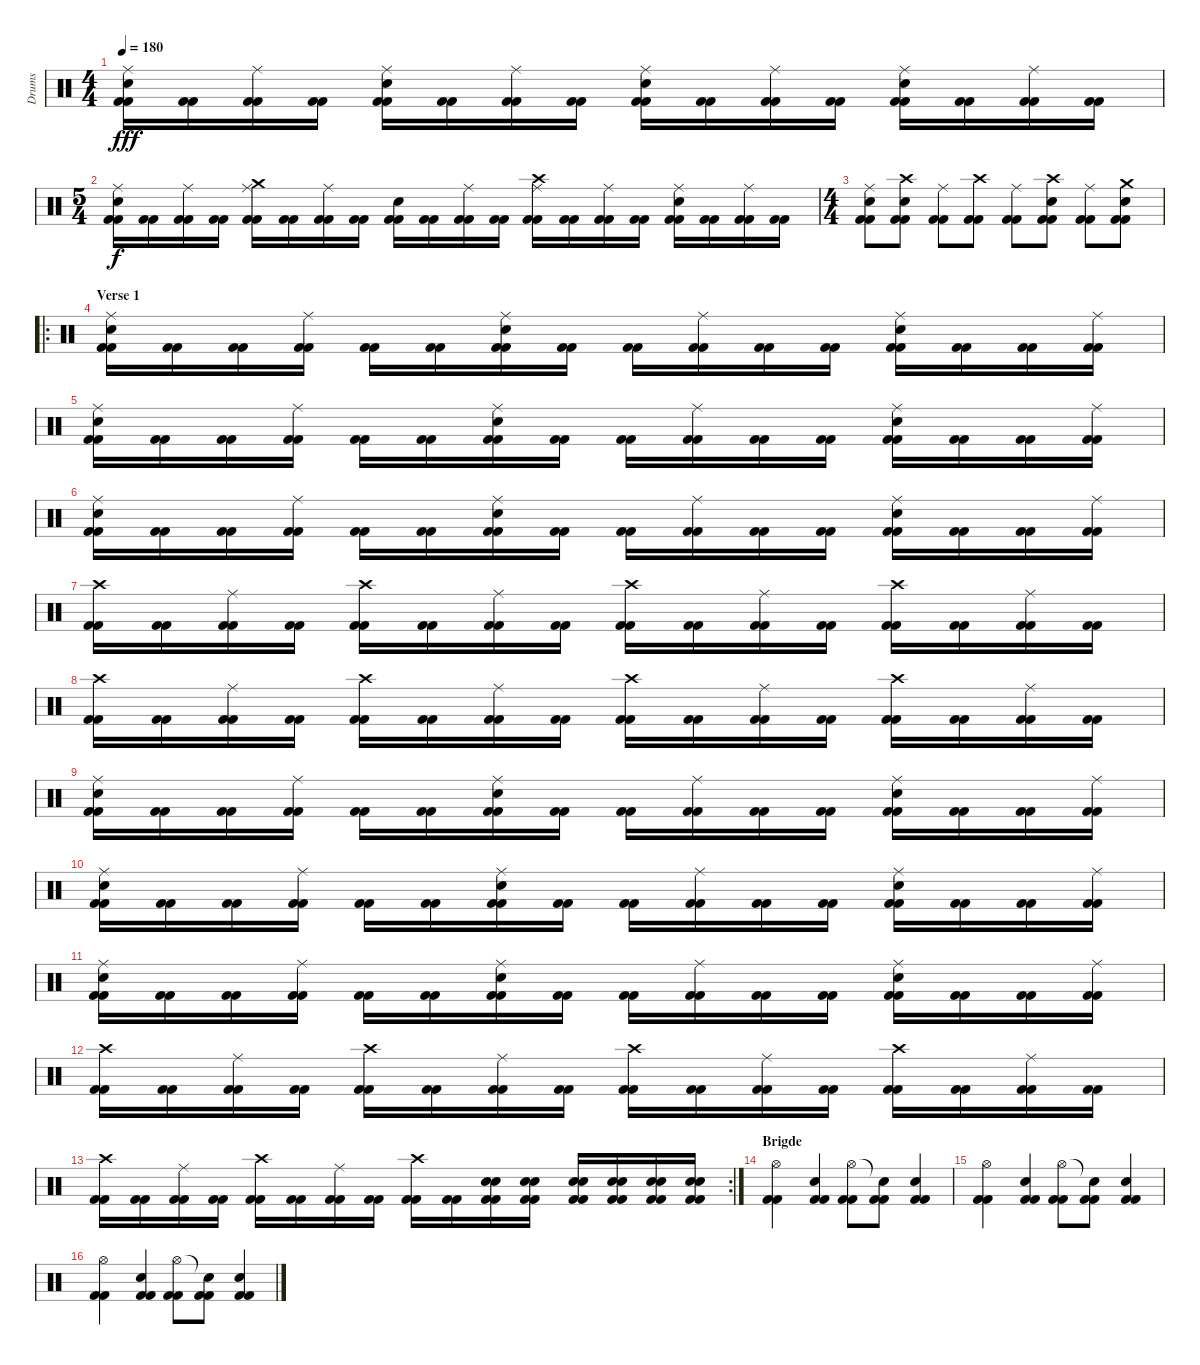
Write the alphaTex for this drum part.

\track ("Drums" "Drums") {instrument percussion}
\staff {score}
\articulation defaults
\ts (4 4)
\tempo 180
\clef neutral
\ks c
("Kick (hit) 2" "Kick (hit) 2" "Electric Snare (hit)" "Ride (middle)").16{dy fff} ("Kick (hit) 2" "Kick (hit) 2").16 ("Kick (hit) 2" "Kick (hit) 2" "Ride (middle)").16 ("Kick (hit) 2" "Kick (hit) 2").16 ("Kick (hit) 2" "Kick (hit) 2" "Electric Snare (hit)" "Ride (middle)").16 ("Kick (hit) 2" "Kick (hit) 2").16 ("Kick (hit) 2" "Kick (hit) 2" "Ride (middle)").16 ("Kick (hit) 2" "Kick (hit) 2").16 ("Kick (hit) 2" "Kick (hit) 2" "Electric Snare (hit)" "Ride (middle)").16 ("Kick (hit) 2" "Kick (hit) 2").16 ("Kick (hit) 2" "Kick (hit) 2" "Ride (middle)").16 ("Kick (hit) 2" "Kick (hit) 2").16 ("Kick (hit) 2" "Kick (hit) 2" "Electric Snare (hit)" "Ride (middle)").16 ("Kick (hit) 2" "Kick (hit) 2").16 ("Kick (hit) 2" "Kick (hit) 2" "Ride (middle)").16 ("Kick (hit) 2" "Kick (hit) 2").16 |
\ts (5 4)
("Kick (hit) 2" "Kick (hit) 2" "Electric Snare (hit)" "Ride (middle)").16{dy f} ("Kick (hit) 2" "Kick (hit) 2").16 ("Kick (hit) 2" "Kick (hit) 2" "Ride (middle)").16 ("Kick (hit) 2" "Kick (hit) 2").16 ("Kick (hit) 2" "Kick (hit) 2" "Crash medium (hit)" "Ride (middle)").16 ("Kick (hit) 2" "Kick (hit) 2").16 ("Kick (hit) 2" "Kick (hit) 2" "Ride (middle)").16 ("Kick (hit) 2" "Kick (hit) 2").16 ("Kick (hit) 2" "Kick (hit) 2" "Snare (hit) 2").16 ("Kick (hit) 2" "Kick (hit) 2").16 ("Kick (hit) 2" "Kick (hit) 2" "Ride (middle)").16 ("Kick (hit) 2" "Kick (hit) 2").16 ("Kick (hit) 2" "Kick (hit) 2" "Crash high (hit)" "Ride (middle)").16 ("Kick (hit) 2" "Kick (hit) 2").16 ("Kick (hit) 2" "Kick (hit) 2" "Ride (middle)").16 ("Kick (hit) 2" "Kick (hit) 2").16 ("Kick (hit) 2" "Kick (hit) 2" "Snare (hit) 2" "Ride (middle)").16 ("Kick (hit) 2" "Kick (hit) 2").16 ("Kick (hit) 2" "Kick (hit) 2" "Ride (middle)").16 ("Kick (hit) 2" "Kick (hit) 2").16 |
\ts (4 4)
("Kick (hit) 2" "Kick (hit) 2" "Electric Snare (hit)" "Ride (middle)").8 ("Kick (hit) 2" "Kick (hit) 2" "Snare (hit) 2" "Crash high (hit)").8 ("Kick (hit) 2" "Kick (hit) 2" "Ride (middle)").8 ("Kick (hit) 2" "Kick (hit) 2" "Crash high (hit)").8 ("Kick (hit) 2" "Kick (hit) 2" "Ride (middle)").8 ("Kick (hit) 2" "Kick (hit) 2" "Electric Snare (hit)" "Crash high (hit)").8 ("Kick (hit) 2" "Kick (hit) 2" "Ride (middle)").8 ("Kick (hit) 2" "Kick (hit) 2" "Electric Snare (hit)" "Crash medium (hit)").8 |
\ro
\section ("" "Verse 1")
("Kick (hit) 2" "Kick (hit) 2" "Electric Snare (hit)" "Ride (middle)").16 ("Kick (hit) 2" "Kick (hit) 2").16 ("Kick (hit) 2" "Kick (hit) 2").16 ("Kick (hit) 2" "Kick (hit) 2" "Ride (middle)").16 ("Kick (hit) 2" "Kick (hit) 2").16 ("Kick (hit) 2" "Kick (hit) 2").16 ("Kick (hit) 2" "Kick (hit) 2" "Electric Snare (hit)" "Ride (middle)").16 ("Kick (hit) 2" "Kick (hit) 2").16 ("Kick (hit) 2" "Kick (hit) 2").16 ("Kick (hit) 2" "Kick (hit) 2" "Ride (middle)").16 ("Kick (hit) 2" "Kick (hit) 2").16 ("Kick (hit) 2" "Kick (hit) 2").16 ("Kick (hit) 2" "Kick (hit) 2" "Electric Snare (hit)" "Ride (middle)").16 ("Kick (hit) 2" "Kick (hit) 2").16 ("Kick (hit) 2" "Kick (hit) 2").16 ("Kick (hit) 2" "Kick (hit) 2" "Ride (middle)").16 |
("Kick (hit) 2" "Kick (hit) 2" "Electric Snare (hit)" "Ride (middle)").16 ("Kick (hit) 2" "Kick (hit) 2").16 ("Kick (hit) 2" "Kick (hit) 2").16 ("Kick (hit) 2" "Kick (hit) 2" "Ride (middle)").16 ("Kick (hit) 2" "Kick (hit) 2").16 ("Kick (hit) 2" "Kick (hit) 2").16 ("Kick (hit) 2" "Kick (hit) 2" "Electric Snare (hit)" "Ride (middle)").16 ("Kick (hit) 2" "Kick (hit) 2").16 ("Kick (hit) 2" "Kick (hit) 2").16 ("Kick (hit) 2" "Kick (hit) 2" "Ride (middle)").16 ("Kick (hit) 2" "Kick (hit) 2").16 ("Kick (hit) 2" "Kick (hit) 2").16 ("Kick (hit) 2" "Kick (hit) 2" "Electric Snare (hit)" "Ride (middle)").16 ("Kick (hit) 2" "Kick (hit) 2").16 ("Kick (hit) 2" "Kick (hit) 2").16 ("Kick (hit) 2" "Kick (hit) 2" "Ride (middle)").16 |
("Kick (hit) 2" "Kick (hit) 2" "Electric Snare (hit)" "Ride (middle)").16 ("Kick (hit) 2" "Kick (hit) 2").16 ("Kick (hit) 2" "Kick (hit) 2").16 ("Kick (hit) 2" "Kick (hit) 2" "Ride (middle)").16 ("Kick (hit) 2" "Kick (hit) 2").16 ("Kick (hit) 2" "Kick (hit) 2").16 ("Kick (hit) 2" "Kick (hit) 2" "Electric Snare (hit)" "Ride (middle)").16 ("Kick (hit) 2" "Kick (hit) 2").16 ("Kick (hit) 2" "Kick (hit) 2").16 ("Kick (hit) 2" "Kick (hit) 2" "Ride (middle)").16 ("Kick (hit) 2" "Kick (hit) 2").16 ("Kick (hit) 2" "Kick (hit) 2").16 ("Kick (hit) 2" "Kick (hit) 2" "Electric Snare (hit)" "Ride (middle)").16 ("Kick (hit) 2" "Kick (hit) 2").16 ("Kick (hit) 2" "Kick (hit) 2").16 ("Kick (hit) 2" "Kick (hit) 2" "Ride (middle)").16 |
("Kick (hit) 2" "Kick (hit) 2" "Crash high (hit)").16 ("Kick (hit) 2" "Kick (hit) 2").16 ("Kick (hit) 2" "Kick (hit) 2" "Ride (middle)").16 ("Kick (hit) 2" "Kick (hit) 2").16 ("Kick (hit) 2" "Kick (hit) 2" "Crash high (hit)").16 ("Kick (hit) 2" "Kick (hit) 2").16 ("Kick (hit) 2" "Kick (hit) 2" "Ride (middle)").16 ("Kick (hit) 2" "Kick (hit) 2").16 ("Kick (hit) 2" "Kick (hit) 2" "Crash high (hit)").16 ("Kick (hit) 2" "Kick (hit) 2").16 ("Kick (hit) 2" "Kick (hit) 2" "Ride (middle)").16 ("Kick (hit) 2" "Kick (hit) 2").16 ("Kick (hit) 2" "Kick (hit) 2" "Crash high (hit)").16 ("Kick (hit) 2" "Kick (hit) 2").16 ("Kick (hit) 2" "Kick (hit) 2" "Ride (middle)").16 ("Kick (hit) 2" "Kick (hit) 2").16 |
("Kick (hit) 2" "Kick (hit) 2" "Crash high (hit)").16 ("Kick (hit) 2" "Kick (hit) 2").16 ("Kick (hit) 2" "Kick (hit) 2" "Ride (middle)").16 ("Kick (hit) 2" "Kick (hit) 2").16 ("Kick (hit) 2" "Kick (hit) 2" "Crash high (hit)").16 ("Kick (hit) 2" "Kick (hit) 2").16 ("Kick (hit) 2" "Kick (hit) 2" "Ride (middle)").16 ("Kick (hit) 2" "Kick (hit) 2").16 ("Kick (hit) 2" "Kick (hit) 2" "Crash high (hit)").16 ("Kick (hit) 2" "Kick (hit) 2").16 ("Kick (hit) 2" "Kick (hit) 2" "Ride (middle)").16 ("Kick (hit) 2" "Kick (hit) 2").16 ("Kick (hit) 2" "Kick (hit) 2" "Crash high (hit)").16 ("Kick (hit) 2" "Kick (hit) 2").16 ("Kick (hit) 2" "Kick (hit) 2" "Ride (middle)").16 ("Kick (hit) 2" "Kick (hit) 2").16 |
("Kick (hit) 2" "Kick (hit) 2" "Electric Snare (hit)" "Ride (middle)").16 ("Kick (hit) 2" "Kick (hit) 2").16 ("Kick (hit) 2" "Kick (hit) 2").16 ("Kick (hit) 2" "Kick (hit) 2" "Ride (middle)").16 ("Kick (hit) 2" "Kick (hit) 2").16 ("Kick (hit) 2" "Kick (hit) 2").16 ("Kick (hit) 2" "Kick (hit) 2" "Electric Snare (hit)" "Ride (middle)").16 ("Kick (hit) 2" "Kick (hit) 2").16 ("Kick (hit) 2" "Kick (hit) 2").16 ("Kick (hit) 2" "Kick (hit) 2" "Ride (middle)").16 ("Kick (hit) 2" "Kick (hit) 2").16 ("Kick (hit) 2" "Kick (hit) 2").16 ("Kick (hit) 2" "Kick (hit) 2" "Electric Snare (hit)" "Ride (middle)").16 ("Kick (hit) 2" "Kick (hit) 2").16 ("Kick (hit) 2" "Kick (hit) 2").16 ("Kick (hit) 2" "Kick (hit) 2" "Ride (middle)").16 |
("Kick (hit) 2" "Kick (hit) 2" "Electric Snare (hit)" "Ride (middle)").16 ("Kick (hit) 2" "Kick (hit) 2").16 ("Kick (hit) 2" "Kick (hit) 2").16 ("Kick (hit) 2" "Kick (hit) 2" "Ride (middle)").16 ("Kick (hit) 2" "Kick (hit) 2").16 ("Kick (hit) 2" "Kick (hit) 2").16 ("Kick (hit) 2" "Kick (hit) 2" "Electric Snare (hit)" "Ride (middle)").16 ("Kick (hit) 2" "Kick (hit) 2").16 ("Kick (hit) 2" "Kick (hit) 2").16 ("Kick (hit) 2" "Kick (hit) 2" "Ride (middle)").16 ("Kick (hit) 2" "Kick (hit) 2").16 ("Kick (hit) 2" "Kick (hit) 2").16 ("Kick (hit) 2" "Kick (hit) 2" "Electric Snare (hit)" "Ride (middle)").16 ("Kick (hit) 2" "Kick (hit) 2").16 ("Kick (hit) 2" "Kick (hit) 2").16 ("Kick (hit) 2" "Kick (hit) 2" "Ride (middle)").16 |
("Kick (hit) 2" "Kick (hit) 2" "Electric Snare (hit)" "Ride (middle)").16 ("Kick (hit) 2" "Kick (hit) 2").16 ("Kick (hit) 2" "Kick (hit) 2").16 ("Kick (hit) 2" "Kick (hit) 2" "Ride (middle)").16 ("Kick (hit) 2" "Kick (hit) 2").16 ("Kick (hit) 2" "Kick (hit) 2").16 ("Kick (hit) 2" "Kick (hit) 2" "Electric Snare (hit)" "Ride (middle)").16 ("Kick (hit) 2" "Kick (hit) 2").16 ("Kick (hit) 2" "Kick (hit) 2").16 ("Kick (hit) 2" "Kick (hit) 2" "Ride (middle)").16 ("Kick (hit) 2" "Kick (hit) 2").16 ("Kick (hit) 2" "Kick (hit) 2").16 ("Kick (hit) 2" "Kick (hit) 2" "Electric Snare (hit)" "Ride (middle)").16 ("Kick (hit) 2" "Kick (hit) 2").16 ("Kick (hit) 2" "Kick (hit) 2").16 ("Kick (hit) 2" "Kick (hit) 2" "Ride (middle)").16 |
("Kick (hit) 2" "Kick (hit) 2" "Crash high (hit)").16 ("Kick (hit) 2" "Kick (hit) 2").16 ("Kick (hit) 2" "Kick (hit) 2" "Ride (middle)").16 ("Kick (hit) 2" "Kick (hit) 2").16 ("Kick (hit) 2" "Kick (hit) 2" "Crash high (hit)").16 ("Kick (hit) 2" "Kick (hit) 2").16 ("Kick (hit) 2" "Kick (hit) 2" "Ride (middle)").16 ("Kick (hit) 2" "Kick (hit) 2").16 ("Kick (hit) 2" "Kick (hit) 2" "Crash high (hit)").16 ("Kick (hit) 2" "Kick (hit) 2").16 ("Kick (hit) 2" "Kick (hit) 2" "Ride (middle)").16 ("Kick (hit) 2" "Kick (hit) 2").16 ("Kick (hit) 2" "Kick (hit) 2" "Crash high (hit)").16 ("Kick (hit) 2" "Kick (hit) 2").16 ("Kick (hit) 2" "Kick (hit) 2" "Ride (middle)").16 ("Kick (hit) 2" "Kick (hit) 2").16 |
\rc 2
("Kick (hit) 2" "Kick (hit) 2" "Crash high (hit)").16 ("Kick (hit) 2" "Kick (hit) 2").16 ("Kick (hit) 2" "Kick (hit) 2" "Ride (middle)").16 ("Kick (hit) 2" "Kick (hit) 2").16 ("Kick (hit) 2" "Kick (hit) 2" "Crash high (hit)").16 ("Kick (hit) 2" "Kick (hit) 2").16 ("Kick (hit) 2" "Kick (hit) 2" "Ride (middle)").16 ("Kick (hit) 2" "Kick (hit) 2").16 ("Kick (hit) 2" "Kick (hit) 2" "Crash high (hit)").16 ("Kick (hit) 2" "Kick (hit) 2").16 ("Kick (hit) 2" "Kick (hit) 2" "Snare (hit) 2" "Snare (hit) 2").16 ("Kick (hit) 2" "Kick (hit) 2" "Snare (hit) 2" "Snare (hit) 2").16 ("Kick (hit) 2" "Kick (hit) 2" "Snare (hit) 2" "Snare (hit) 2").16 ("Kick (hit) 2" "Kick (hit) 2" "Snare (hit) 2" "Snare (hit) 2").16 ("Kick (hit) 2" "Kick (hit) 2" "Snare (hit) 2" "Snare (hit) 2").16 ("Kick (hit) 2" "Kick (hit) 2" "Snare (hit) 2" "Snare (hit) 2").16 |
\section ("" "Brigde")
("Hi-Hat (open)" "Kick (hit) 2" "Kick (hit) 2").4 ("Snare (hit) 2" "Kick (hit) 2" "Kick (hit) 2").4 ("Hi-Hat (open)" "Kick (hit) 2" "Kick (hit) 2").8 ("Snare (hit)"{t} "Kick (hit) 2" "Kick (hit) 2").8 ("Snare (hit) 2" "Kick (hit) 2" "Kick (hit) 2").4 |
("Hi-Hat (open)" "Kick (hit) 2" "Kick (hit) 2").4 ("Snare (hit) 2" "Kick (hit) 2" "Kick (hit) 2").4 ("Hi-Hat (open)" "Kick (hit) 2" "Kick (hit) 2").8 ("Snare (hit)"{t} "Kick (hit) 2" "Kick (hit) 2").8 ("Snare (hit) 2" "Kick (hit) 2" "Kick (hit) 2").4 |
("Hi-Hat (open)" "Kick (hit) 2" "Kick (hit) 2").4 ("Snare (hit) 2" "Kick (hit) 2" "Kick (hit) 2").4 ("Hi-Hat (open)" "Kick (hit) 2" "Kick (hit) 2").8 ("Snare (hit)"{t} "Kick (hit) 2" "Kick (hit) 2").8 ("Snare (hit) 2" "Kick (hit) 2" "Kick (hit) 2").4
